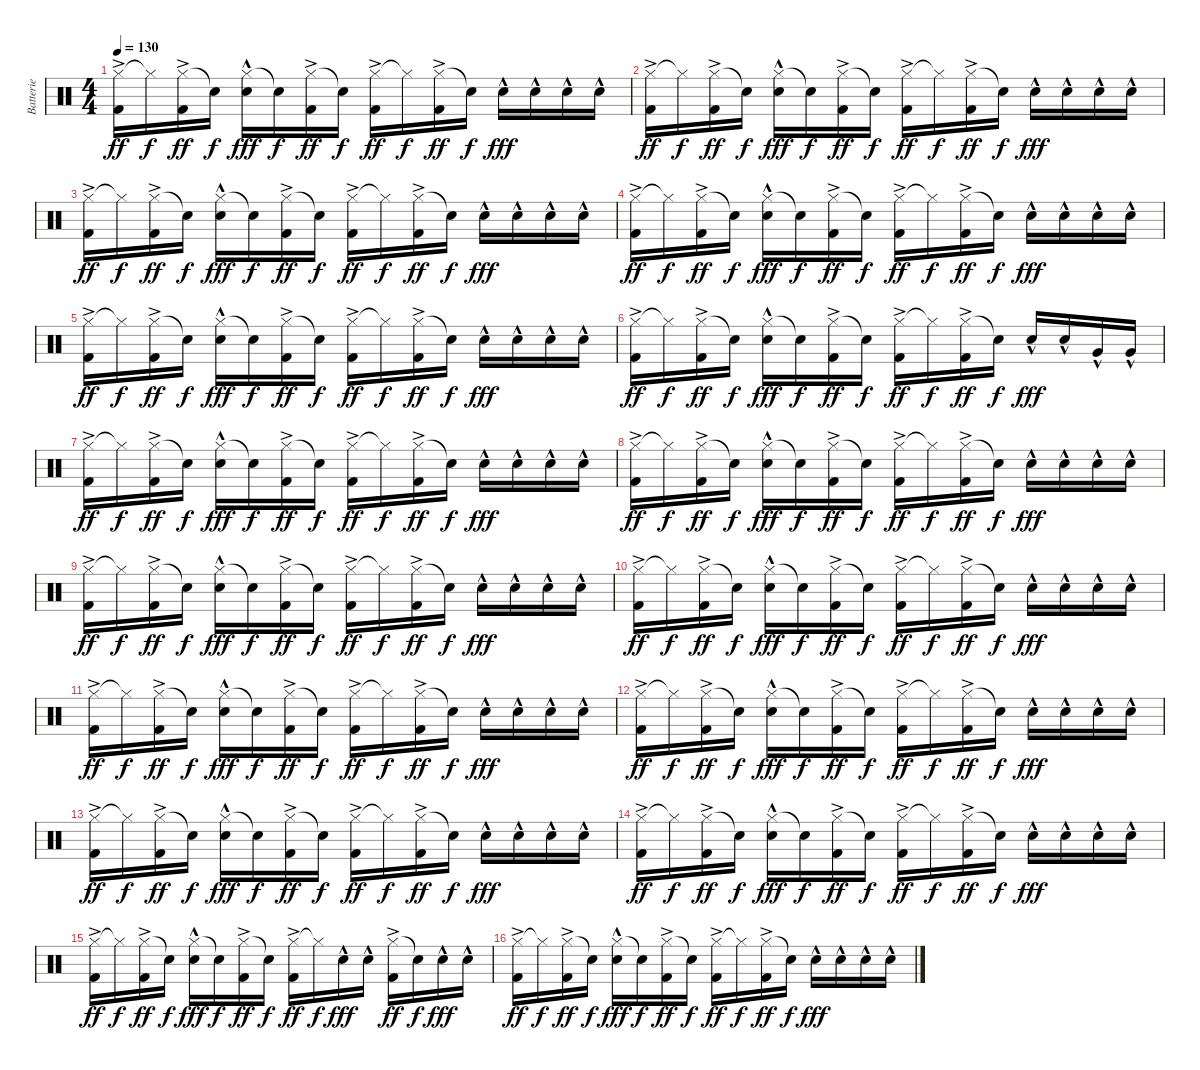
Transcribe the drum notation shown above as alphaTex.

\track ("Batterie" "Batterie") {instrument percussion}
\staff {score}
\articulation defaults
\ts (4 4)
\tempo 130
\clef neutral
\ks c
("Hi-Hat (closed)"{ac} "Kick (hit) 2"{ac}).16{dy ff} "Hi-Hat (closed)"{t}.16{dy f} ("Hi-Hat (closed)"{ac} "Kick (hit) 2"{ac}).16{dy ff} "Snare (hit)"{t}.16{dy f} ("Hi-Hat (closed)"{hac} "Electric Snare (hit)"{hac}).16{dy fff} "Snare (hit)"{t}.16{dy f} ("Hi-Hat (closed)"{ac} "Kick (hit) 2"{ac}).16{dy ff} "Snare (hit)"{t}.16{dy f} ("Hi-Hat (closed)"{ac} "Kick (hit) 2"{ac}).16{dy ff} "Hi-Hat (closed)"{t}.16{dy f} ("Hi-Hat (closed)"{ac} "Kick (hit) 2"{ac}).16{dy ff} "Snare (hit)"{t}.16{dy f} "Electric Snare (hit)"{hac}.16{dy fff} "Electric Snare (hit)"{hac}.16 "Electric Snare (hit)"{hac}.16 "Electric Snare (hit)"{hac}.16 |
("Hi-Hat (closed)"{ac} "Kick (hit) 2"{ac}).16{dy ff} "Hi-Hat (closed)"{t}.16{dy f} ("Hi-Hat (closed)"{ac} "Kick (hit) 2"{ac}).16{dy ff} "Snare (hit)"{t}.16{dy f} ("Hi-Hat (closed)"{hac} "Electric Snare (hit)"{hac}).16{dy fff} "Snare (hit)"{t}.16{dy f} ("Hi-Hat (closed)"{ac} "Kick (hit) 2"{ac}).16{dy ff} "Snare (hit)"{t}.16{dy f} ("Hi-Hat (closed)"{ac} "Kick (hit) 2"{ac}).16{dy ff} "Hi-Hat (closed)"{t}.16{dy f} ("Hi-Hat (closed)"{ac} "Kick (hit) 2"{ac}).16{dy ff} "Snare (hit)"{t}.16{dy f} "Electric Snare (hit)"{hac}.16{dy fff} "Electric Snare (hit)"{hac}.16 "Electric Snare (hit)"{hac}.16 "Electric Snare (hit)"{hac}.16 |
("Hi-Hat (closed)"{ac} "Kick (hit) 2"{ac}).16{dy ff} "Hi-Hat (closed)"{t}.16{dy f} ("Hi-Hat (closed)"{ac} "Kick (hit) 2"{ac}).16{dy ff} "Snare (hit)"{t}.16{dy f} ("Hi-Hat (closed)"{hac} "Electric Snare (hit)"{hac}).16{dy fff} "Snare (hit)"{t}.16{dy f} ("Hi-Hat (closed)"{ac} "Kick (hit) 2"{ac}).16{dy ff} "Snare (hit)"{t}.16{dy f} ("Hi-Hat (closed)"{ac} "Kick (hit) 2"{ac}).16{dy ff} "Hi-Hat (closed)"{t}.16{dy f} ("Hi-Hat (closed)"{ac} "Kick (hit) 2"{ac}).16{dy ff} "Snare (hit)"{t}.16{dy f} "Electric Snare (hit)"{hac}.16{dy fff} "Electric Snare (hit)"{hac}.16 "Electric Snare (hit)"{hac}.16 "Electric Snare (hit)"{hac}.16 |
("Hi-Hat (closed)"{ac} "Kick (hit) 2"{ac}).16{dy ff} "Hi-Hat (closed)"{t}.16{dy f} ("Hi-Hat (closed)"{ac} "Kick (hit) 2"{ac}).16{dy ff} "Snare (hit)"{t}.16{dy f} ("Hi-Hat (closed)"{hac} "Electric Snare (hit)"{hac}).16{dy fff} "Snare (hit)"{t}.16{dy f} ("Hi-Hat (closed)"{ac} "Kick (hit) 2"{ac}).16{dy ff} "Snare (hit)"{t}.16{dy f} ("Hi-Hat (closed)"{ac} "Kick (hit) 2"{ac}).16{dy ff} "Hi-Hat (closed)"{t}.16{dy f} ("Hi-Hat (closed)"{ac} "Kick (hit) 2"{ac}).16{dy ff} "Snare (hit)"{t}.16{dy f} "Electric Snare (hit)"{hac}.16{dy fff} "Electric Snare (hit)"{hac}.16 "Electric Snare (hit)"{hac}.16 "Electric Snare (hit)"{hac}.16 |
("Hi-Hat (closed)"{ac} "Kick (hit) 2"{ac}).16{dy ff} "Hi-Hat (closed)"{t}.16{dy f} ("Hi-Hat (closed)"{ac} "Kick (hit) 2"{ac}).16{dy ff} "Snare (hit)"{t}.16{dy f} ("Hi-Hat (closed)"{hac} "Electric Snare (hit)"{hac}).16{dy fff} "Snare (hit)"{t}.16{dy f} ("Hi-Hat (closed)"{ac} "Kick (hit) 2"{ac}).16{dy ff} "Snare (hit)"{t}.16{dy f} ("Hi-Hat (closed)"{ac} "Kick (hit) 2"{ac}).16{dy ff} "Hi-Hat (closed)"{t}.16{dy f} ("Hi-Hat (closed)"{ac} "Kick (hit) 2"{ac}).16{dy ff} "Snare (hit)"{t}.16{dy f} "Electric Snare (hit)"{hac}.16{dy fff} "Electric Snare (hit)"{hac}.16 "Electric Snare (hit)"{hac}.16 "Electric Snare (hit)"{hac}.16 |
("Hi-Hat (closed)"{ac} "Kick (hit) 2"{ac}).16{dy ff} "Hi-Hat (closed)"{t}.16{dy f} ("Hi-Hat (closed)"{ac} "Kick (hit) 2"{ac}).16{dy ff} "Snare (hit)"{t}.16{dy f} ("Hi-Hat (closed)"{hac} "Electric Snare (hit)"{hac}).16{dy fff} "Snare (hit)"{t}.16{dy f} ("Hi-Hat (closed)"{ac} "Kick (hit) 2"{ac}).16{dy ff} "Snare (hit)"{t}.16{dy f} ("Hi-Hat (closed)"{ac} "Kick (hit) 2"{ac}).16{dy ff} "Hi-Hat (closed)"{t}.16{dy f} ("Hi-Hat (closed)"{ac} "Kick (hit) 2"{ac}).16{dy ff} "Snare (hit)"{t}.16{dy f} "Electric Snare (hit)"{hac}.16{dy fff} "Electric Snare (hit)"{hac}.16 "Very Low Tom (hit)"{hac}.16 "Very Low Tom (hit)"{hac}.16 |
("Hi-Hat (closed)"{ac} "Kick (hit) 2"{ac}).16{dy ff} "Hi-Hat (closed)"{t}.16{dy f} ("Hi-Hat (closed)"{ac} "Kick (hit) 2"{ac}).16{dy ff} "Snare (hit)"{t}.16{dy f} ("Hi-Hat (closed)"{hac} "Electric Snare (hit)"{hac}).16{dy fff} "Snare (hit)"{t}.16{dy f} ("Hi-Hat (closed)"{ac} "Kick (hit) 2"{ac}).16{dy ff} "Snare (hit)"{t}.16{dy f} ("Hi-Hat (closed)"{ac} "Kick (hit) 2"{ac}).16{dy ff} "Hi-Hat (closed)"{t}.16{dy f} ("Hi-Hat (closed)"{ac} "Kick (hit) 2"{ac}).16{dy ff} "Snare (hit)"{t}.16{dy f} "Electric Snare (hit)"{hac}.16{dy fff} "Electric Snare (hit)"{hac}.16 "Electric Snare (hit)"{hac}.16 "Electric Snare (hit)"{hac}.16 |
("Hi-Hat (closed)"{ac} "Kick (hit) 2"{ac}).16{dy ff} "Hi-Hat (closed)"{t}.16{dy f} ("Hi-Hat (closed)"{ac} "Kick (hit) 2"{ac}).16{dy ff} "Snare (hit)"{t}.16{dy f} ("Hi-Hat (closed)"{hac} "Electric Snare (hit)"{hac}).16{dy fff} "Snare (hit)"{t}.16{dy f} ("Hi-Hat (closed)"{ac} "Kick (hit) 2"{ac}).16{dy ff} "Snare (hit)"{t}.16{dy f} ("Hi-Hat (closed)"{ac} "Kick (hit) 2"{ac}).16{dy ff} "Hi-Hat (closed)"{t}.16{dy f} ("Hi-Hat (closed)"{ac} "Kick (hit) 2"{ac}).16{dy ff} "Snare (hit)"{t}.16{dy f} "Electric Snare (hit)"{hac}.16{dy fff} "Electric Snare (hit)"{hac}.16 "Electric Snare (hit)"{hac}.16 "Electric Snare (hit)"{hac}.16 |
("Hi-Hat (closed)"{ac} "Kick (hit) 2"{ac}).16{dy ff} "Hi-Hat (closed)"{t}.16{dy f} ("Hi-Hat (closed)"{ac} "Kick (hit) 2"{ac}).16{dy ff} "Snare (hit)"{t}.16{dy f} ("Hi-Hat (closed)"{hac} "Electric Snare (hit)"{hac}).16{dy fff} "Snare (hit)"{t}.16{dy f} ("Hi-Hat (closed)"{ac} "Kick (hit) 2"{ac}).16{dy ff} "Snare (hit)"{t}.16{dy f} ("Hi-Hat (closed)"{ac} "Kick (hit) 2"{ac}).16{dy ff} "Hi-Hat (closed)"{t}.16{dy f} ("Hi-Hat (closed)"{ac} "Kick (hit) 2"{ac}).16{dy ff} "Snare (hit)"{t}.16{dy f} "Electric Snare (hit)"{hac}.16{dy fff} "Electric Snare (hit)"{hac}.16 "Electric Snare (hit)"{hac}.16 "Electric Snare (hit)"{hac}.16 |
("Hi-Hat (closed)"{ac} "Kick (hit) 2"{ac}).16{dy ff} "Hi-Hat (closed)"{t}.16{dy f} ("Hi-Hat (closed)"{ac} "Kick (hit) 2"{ac}).16{dy ff} "Snare (hit)"{t}.16{dy f} ("Hi-Hat (closed)"{hac} "Electric Snare (hit)"{hac}).16{dy fff} "Snare (hit)"{t}.16{dy f} ("Hi-Hat (closed)"{ac} "Kick (hit) 2"{ac}).16{dy ff} "Snare (hit)"{t}.16{dy f} ("Hi-Hat (closed)"{ac} "Kick (hit) 2"{ac}).16{dy ff} "Hi-Hat (closed)"{t}.16{dy f} ("Hi-Hat (closed)"{ac} "Kick (hit) 2"{ac}).16{dy ff} "Snare (hit)"{t}.16{dy f} "Electric Snare (hit)"{hac}.16{dy fff} "Electric Snare (hit)"{hac}.16 "Electric Snare (hit)"{hac}.16 "Electric Snare (hit)"{hac}.16 |
("Hi-Hat (closed)"{ac} "Kick (hit) 2"{ac}).16{dy ff} "Hi-Hat (closed)"{t}.16{dy f} ("Hi-Hat (closed)"{ac} "Kick (hit) 2"{ac}).16{dy ff} "Snare (hit)"{t}.16{dy f} ("Hi-Hat (closed)"{hac} "Electric Snare (hit)"{hac}).16{dy fff} "Snare (hit)"{t}.16{dy f} ("Hi-Hat (closed)"{ac} "Kick (hit) 2"{ac}).16{dy ff} "Snare (hit)"{t}.16{dy f} ("Hi-Hat (closed)"{ac} "Kick (hit) 2"{ac}).16{dy ff} "Hi-Hat (closed)"{t}.16{dy f} ("Hi-Hat (closed)"{ac} "Kick (hit) 2"{ac}).16{dy ff} "Snare (hit)"{t}.16{dy f} "Electric Snare (hit)"{hac}.16{dy fff} "Electric Snare (hit)"{hac}.16 "Electric Snare (hit)"{hac}.16 "Electric Snare (hit)"{hac}.16 |
("Hi-Hat (closed)"{ac} "Kick (hit) 2"{ac}).16{dy ff} "Hi-Hat (closed)"{t}.16{dy f} ("Hi-Hat (closed)"{ac} "Kick (hit) 2"{ac}).16{dy ff} "Snare (hit)"{t}.16{dy f} ("Hi-Hat (closed)"{hac} "Electric Snare (hit)"{hac}).16{dy fff} "Snare (hit)"{t}.16{dy f} ("Hi-Hat (closed)"{ac} "Kick (hit) 2"{ac}).16{dy ff} "Snare (hit)"{t}.16{dy f} ("Hi-Hat (closed)"{ac} "Kick (hit) 2"{ac}).16{dy ff} "Hi-Hat (closed)"{t}.16{dy f} ("Hi-Hat (closed)"{ac} "Kick (hit) 2"{ac}).16{dy ff} "Snare (hit)"{t}.16{dy f} "Electric Snare (hit)"{hac}.16{dy fff} "Electric Snare (hit)"{hac}.16 "Electric Snare (hit)"{hac}.16 "Electric Snare (hit)"{hac}.16 |
("Hi-Hat (closed)"{ac} "Kick (hit) 2"{ac}).16{dy ff} "Hi-Hat (closed)"{t}.16{dy f} ("Hi-Hat (closed)"{ac} "Kick (hit) 2"{ac}).16{dy ff} "Snare (hit)"{t}.16{dy f} ("Hi-Hat (closed)"{hac} "Electric Snare (hit)"{hac}).16{dy fff} "Snare (hit)"{t}.16{dy f} ("Hi-Hat (closed)"{ac} "Kick (hit) 2"{ac}).16{dy ff} "Snare (hit)"{t}.16{dy f} ("Hi-Hat (closed)"{ac} "Kick (hit) 2"{ac}).16{dy ff} "Hi-Hat (closed)"{t}.16{dy f} ("Hi-Hat (closed)"{ac} "Kick (hit) 2"{ac}).16{dy ff} "Snare (hit)"{t}.16{dy f} "Electric Snare (hit)"{hac}.16{dy fff} "Electric Snare (hit)"{hac}.16 "Electric Snare (hit)"{hac}.16 "Electric Snare (hit)"{hac}.16 |
("Hi-Hat (closed)"{ac} "Kick (hit) 2"{ac}).16{dy ff} "Hi-Hat (closed)"{t}.16{dy f} ("Hi-Hat (closed)"{ac} "Kick (hit) 2"{ac}).16{dy ff} "Snare (hit)"{t}.16{dy f} ("Hi-Hat (closed)"{hac} "Electric Snare (hit)"{hac}).16{dy fff} "Snare (hit)"{t}.16{dy f} ("Hi-Hat (closed)"{ac} "Kick (hit) 2"{ac}).16{dy ff} "Snare (hit)"{t}.16{dy f} ("Hi-Hat (closed)"{ac} "Kick (hit) 2"{ac}).16{dy ff} "Hi-Hat (closed)"{t}.16{dy f} ("Hi-Hat (closed)"{ac} "Kick (hit) 2"{ac}).16{dy ff} "Snare (hit)"{t}.16{dy f} "Electric Snare (hit)"{hac}.16{dy fff} "Electric Snare (hit)"{hac}.16 "Electric Snare (hit)"{hac}.16 "Electric Snare (hit)"{hac}.16 |
("Hi-Hat (closed)"{ac} "Kick (hit) 2"{ac}).16{dy ff} "Hi-Hat (closed)"{t}.16{dy f} ("Hi-Hat (closed)"{ac} "Kick (hit) 2"{ac}).16{dy ff} "Snare (hit)"{t}.16{dy f} ("Hi-Hat (closed)"{hac} "Electric Snare (hit)"{hac}).16{dy fff} "Snare (hit)"{t}.16{dy f} ("Hi-Hat (closed)"{ac} "Kick (hit) 2"{ac}).16{dy ff} "Snare (hit)"{t}.16{dy f} ("Hi-Hat (closed)"{ac} "Kick (hit) 2"{ac}).16{dy ff} "Hi-Hat (closed)"{t}.16{dy f} "Electric Snare (hit)"{hac}.16{dy fff} "Electric Snare (hit)"{hac}.16 ("Hi-Hat (closed)"{ac} "Kick (hit) 2"{ac}).16{dy ff} "Electric Snare (hit)"{t}.16{dy f} "Electric Snare (hit)"{hac}.16{dy fff} "Electric Snare (hit)"{hac}.16 |
("Hi-Hat (closed)"{ac} "Kick (hit) 2"{ac}).16{dy ff} "Hi-Hat (closed)"{t}.16{dy f} ("Hi-Hat (closed)"{ac} "Kick (hit) 2"{ac}).16{dy ff} "Snare (hit)"{t}.16{dy f} ("Hi-Hat (closed)"{hac} "Electric Snare (hit)"{hac}).16{dy fff} "Snare (hit)"{t}.16{dy f} ("Hi-Hat (closed)"{ac} "Kick (hit) 2"{ac}).16{dy ff} "Snare (hit)"{t}.16{dy f} ("Hi-Hat (closed)"{ac} "Kick (hit) 2"{ac}).16{dy ff} "Hi-Hat (closed)"{t}.16{dy f} ("Hi-Hat (closed)"{ac} "Kick (hit) 2"{ac}).16{dy ff} "Snare (hit)"{t}.16{dy f} "Electric Snare (hit)"{hac}.16{dy fff} "Electric Snare (hit)"{hac}.16 "Electric Snare (hit)"{hac}.16 "Electric Snare (hit)"{hac}.16
